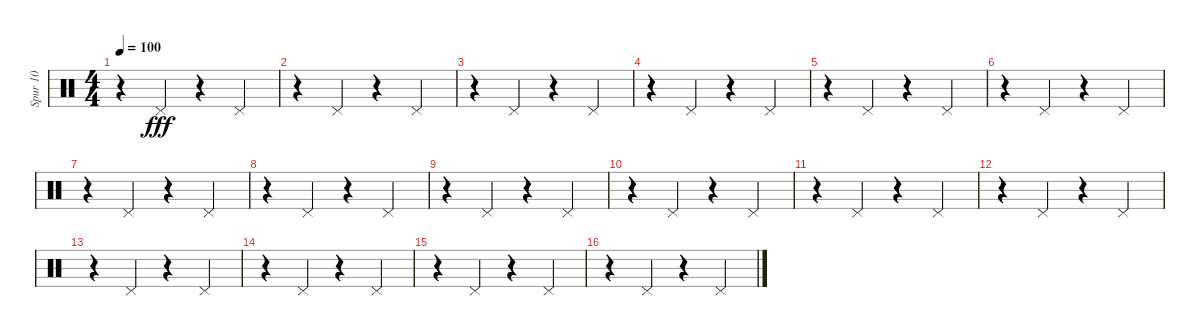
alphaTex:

\track ("Spur 10" "Spur 10") {instrument percussion}
\staff {score}
\articulation defaults
\ts (4 4)
\tempo 100
\clef neutral
\ks c
r.4{dy fff} "Pedal Hi-Hat (hit)".4 r.4 "Pedal Hi-Hat (hit)".4 |
r.4 "Pedal Hi-Hat (hit)".4 r.4 "Pedal Hi-Hat (hit)".4 |
r.4 "Pedal Hi-Hat (hit)".4 r.4 "Pedal Hi-Hat (hit)".4 |
r.4 "Pedal Hi-Hat (hit)".4 r.4 "Pedal Hi-Hat (hit)".4 |
r.4 "Pedal Hi-Hat (hit)".4 r.4 "Pedal Hi-Hat (hit)".4 |
r.4 "Pedal Hi-Hat (hit)".4 r.4 "Pedal Hi-Hat (hit)".4 |
r.4 "Pedal Hi-Hat (hit)".4 r.4 "Pedal Hi-Hat (hit)".4 |
r.4 "Pedal Hi-Hat (hit)".4 r.4 "Pedal Hi-Hat (hit)".4 |
r.4 "Pedal Hi-Hat (hit)".4 r.4 "Pedal Hi-Hat (hit)".4 |
r.4 "Pedal Hi-Hat (hit)".4 r.4 "Pedal Hi-Hat (hit)".4 |
r.4 "Pedal Hi-Hat (hit)".4 r.4 "Pedal Hi-Hat (hit)".4 |
r.4 "Pedal Hi-Hat (hit)".4 r.4 "Pedal Hi-Hat (hit)".4 |
r.4 "Pedal Hi-Hat (hit)".4 r.4 "Pedal Hi-Hat (hit)".4 |
r.4 "Pedal Hi-Hat (hit)".4 r.4 "Pedal Hi-Hat (hit)".4 |
r.4 "Pedal Hi-Hat (hit)".4 r.4 "Pedal Hi-Hat (hit)".4 |
r.4 "Pedal Hi-Hat (hit)".4 r.4 "Pedal Hi-Hat (hit)".4
